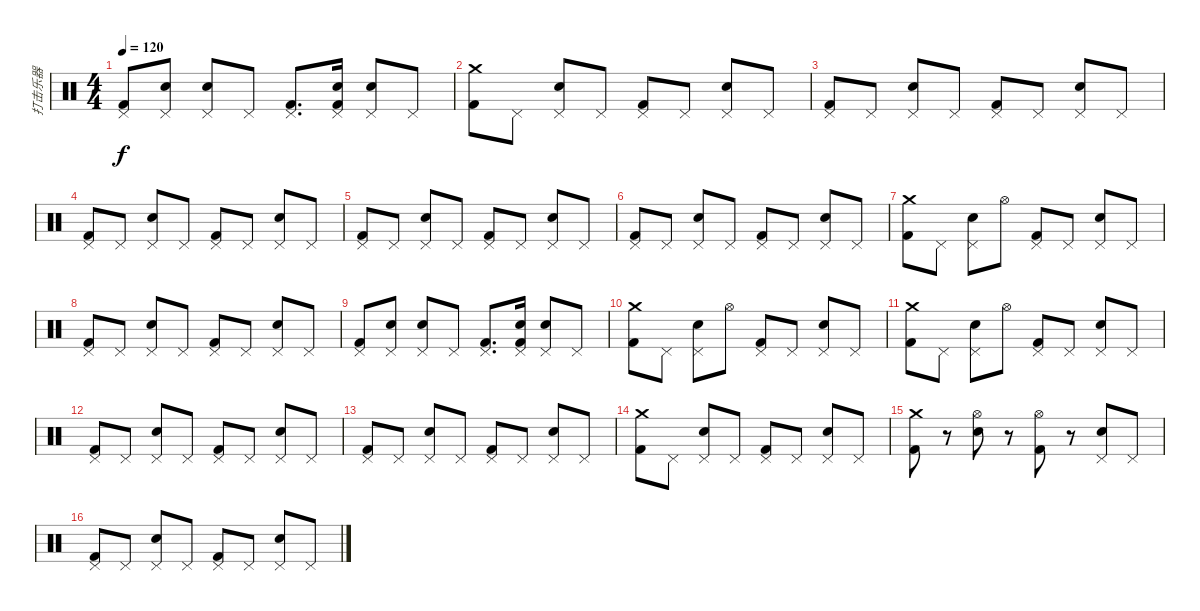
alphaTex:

\track ("打击乐器" "打击乐器") {instrument percussion}
\staff {score}
\articulation defaults
\ts (4 4)
\tempo 120
\clef neutral
\ks c
("Pedal Hi-Hat (hit)" "Kick (hit) 2").8{dy f} ("Pedal Hi-Hat (hit)" "Electric Snare (hit)").8 ("Pedal Hi-Hat (hit)" "Electric Snare (hit)").8 "Pedal Hi-Hat (hit)".8 ("Pedal Hi-Hat (hit)" "Kick (hit) 2").8{d} ("Pedal Hi-Hat (hit)" "Electric Snare (hit)" "Kick (hit) 2").16 ("Pedal Hi-Hat (hit)" "Electric Snare (hit)").8 "Pedal Hi-Hat (hit)".8 |
("Crash medium (hit)" "Kick (hit) 2").8 "Pedal Hi-Hat (hit)".8 ("Pedal Hi-Hat (hit)" "Electric Snare (hit)").8 "Pedal Hi-Hat (hit)".8 ("Pedal Hi-Hat (hit)" "Kick (hit) 2").8 "Pedal Hi-Hat (hit)".8 ("Pedal Hi-Hat (hit)" "Electric Snare (hit)").8 "Pedal Hi-Hat (hit)".8 |
("Pedal Hi-Hat (hit)" "Kick (hit) 2").8 "Pedal Hi-Hat (hit)".8 ("Pedal Hi-Hat (hit)" "Electric Snare (hit)").8 "Pedal Hi-Hat (hit)".8 ("Pedal Hi-Hat (hit)" "Kick (hit) 2").8 "Pedal Hi-Hat (hit)".8 ("Pedal Hi-Hat (hit)" "Electric Snare (hit)").8 "Pedal Hi-Hat (hit)".8 |
("Pedal Hi-Hat (hit)" "Kick (hit) 2").8 "Pedal Hi-Hat (hit)".8 ("Pedal Hi-Hat (hit)" "Electric Snare (hit)").8 "Pedal Hi-Hat (hit)".8 ("Pedal Hi-Hat (hit)" "Kick (hit) 2").8 "Pedal Hi-Hat (hit)".8 ("Pedal Hi-Hat (hit)" "Electric Snare (hit)").8 "Pedal Hi-Hat (hit)".8 |
("Pedal Hi-Hat (hit)" "Kick (hit) 2").8 "Pedal Hi-Hat (hit)".8 ("Pedal Hi-Hat (hit)" "Electric Snare (hit)").8 "Pedal Hi-Hat (hit)".8 ("Pedal Hi-Hat (hit)" "Kick (hit) 2").8 "Pedal Hi-Hat (hit)".8 ("Pedal Hi-Hat (hit)" "Electric Snare (hit)").8 "Pedal Hi-Hat (hit)".8 |
("Pedal Hi-Hat (hit)" "Kick (hit) 2").8 "Pedal Hi-Hat (hit)".8 ("Pedal Hi-Hat (hit)" "Electric Snare (hit)").8 "Pedal Hi-Hat (hit)".8 ("Pedal Hi-Hat (hit)" "Kick (hit) 2").8 "Pedal Hi-Hat (hit)".8 ("Pedal Hi-Hat (hit)" "Electric Snare (hit)").8 "Pedal Hi-Hat (hit)".8 |
("Crash medium (hit)" "Kick (hit) 2").8 "Pedal Hi-Hat (hit)".8 ("Pedal Hi-Hat (hit)" "Electric Snare (hit)").8 "Hi-Hat (open)".8 ("Pedal Hi-Hat (hit)" "Kick (hit) 2").8 "Pedal Hi-Hat (hit)".8 ("Pedal Hi-Hat (hit)" "Electric Snare (hit)").8 "Pedal Hi-Hat (hit)".8 |
("Pedal Hi-Hat (hit)" "Kick (hit) 2").8 "Pedal Hi-Hat (hit)".8 ("Pedal Hi-Hat (hit)" "Electric Snare (hit)").8 "Pedal Hi-Hat (hit)".8 ("Pedal Hi-Hat (hit)" "Kick (hit) 2").8 "Pedal Hi-Hat (hit)".8 ("Pedal Hi-Hat (hit)" "Electric Snare (hit)").8 "Pedal Hi-Hat (hit)".8 |
("Pedal Hi-Hat (hit)" "Kick (hit) 2").8 ("Pedal Hi-Hat (hit)" "Electric Snare (hit)").8 ("Pedal Hi-Hat (hit)" "Electric Snare (hit)").8 "Pedal Hi-Hat (hit)".8 ("Pedal Hi-Hat (hit)" "Kick (hit) 2").8{d} ("Pedal Hi-Hat (hit)" "Electric Snare (hit)" "Kick (hit) 2").16 ("Pedal Hi-Hat (hit)" "Electric Snare (hit)").8 "Pedal Hi-Hat (hit)".8 |
("Crash medium (hit)" "Kick (hit) 2").8 "Pedal Hi-Hat (hit)".8 ("Pedal Hi-Hat (hit)" "Electric Snare (hit)").8 "Hi-Hat (open)".8 ("Pedal Hi-Hat (hit)" "Kick (hit) 2").8 "Pedal Hi-Hat (hit)".8 ("Pedal Hi-Hat (hit)" "Electric Snare (hit)").8 "Pedal Hi-Hat (hit)".8 |
("Crash medium (hit)" "Kick (hit) 2").8 "Pedal Hi-Hat (hit)".8 ("Pedal Hi-Hat (hit)" "Electric Snare (hit)").8 "Hi-Hat (open)".8 ("Pedal Hi-Hat (hit)" "Kick (hit) 2").8 "Pedal Hi-Hat (hit)".8 ("Pedal Hi-Hat (hit)" "Electric Snare (hit)").8 "Pedal Hi-Hat (hit)".8 |
("Pedal Hi-Hat (hit)" "Kick (hit) 2").8 "Pedal Hi-Hat (hit)".8 ("Pedal Hi-Hat (hit)" "Electric Snare (hit)").8 "Pedal Hi-Hat (hit)".8 ("Pedal Hi-Hat (hit)" "Kick (hit) 2").8 "Pedal Hi-Hat (hit)".8 ("Pedal Hi-Hat (hit)" "Electric Snare (hit)").8 "Pedal Hi-Hat (hit)".8 |
("Pedal Hi-Hat (hit)" "Kick (hit) 2").8 "Pedal Hi-Hat (hit)".8 ("Pedal Hi-Hat (hit)" "Electric Snare (hit)").8 "Pedal Hi-Hat (hit)".8 ("Pedal Hi-Hat (hit)" "Kick (hit) 2").8 "Pedal Hi-Hat (hit)".8 ("Pedal Hi-Hat (hit)" "Electric Snare (hit)").8 "Pedal Hi-Hat (hit)".8 |
("Crash medium (hit)" "Kick (hit) 2").8 "Pedal Hi-Hat (hit)".8 ("Pedal Hi-Hat (hit)" "Electric Snare (hit)").8 "Pedal Hi-Hat (hit)".8 ("Pedal Hi-Hat (hit)" "Kick (hit) 2").8 "Pedal Hi-Hat (hit)".8 ("Pedal Hi-Hat (hit)" "Electric Snare (hit)").8 "Pedal Hi-Hat (hit)".8 |
("Crash medium (hit)" "Kick (hit) 2").8 r.8 ("Hi-Hat (open)" "Electric Snare (hit)").8 r.8 ("Hi-Hat (open)" "Kick (hit) 2").8 r.8 ("Pedal Hi-Hat (hit)" "Electric Snare (hit)").8 "Pedal Hi-Hat (hit)".8 |
("Pedal Hi-Hat (hit)" "Kick (hit) 2").8 "Pedal Hi-Hat (hit)".8 ("Pedal Hi-Hat (hit)" "Electric Snare (hit)").8 "Pedal Hi-Hat (hit)".8 ("Pedal Hi-Hat (hit)" "Kick (hit) 2").8 "Pedal Hi-Hat (hit)".8 ("Pedal Hi-Hat (hit)" "Electric Snare (hit)").8 "Pedal Hi-Hat (hit)".8
